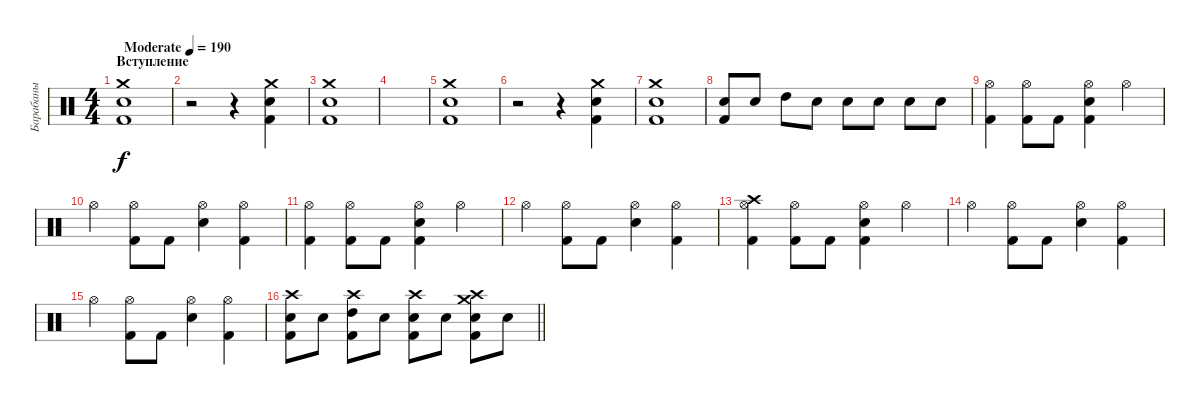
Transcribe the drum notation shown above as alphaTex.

\track ("Барабаны" "Барабаны") {instrument percussion}
\staff {score}
\articulation defaults
\ts (4 4)
\section ("" "Вступление")
\tempo (190 "Moderate")
\clef neutral
\ks c
("Kick (hit) 2" "Snare (hit) 2" "Crash medium (hit)").1{dy f} |
r.2 r.4 ("Kick (hit) 2" "Snare (hit) 2" "Crash medium (hit)").4 |
("Kick (hit) 2" "Snare (hit) 2" "Crash medium (hit)").1 |
|
("Kick (hit) 2" "Snare (hit) 2" "Crash medium (hit)").1 |
r.2 r.4 ("Kick (hit) 2" "Snare (hit) 2" "Crash medium (hit)").4 |
("Kick (hit) 2" "Snare (hit) 2" "Crash medium (hit)").1 |
("Kick (hit) 2" "Electric Snare (hit)").8 "Electric Snare (hit)".8 "High Tom (hit)".8 "Electric Snare (hit)".8 "Electric Snare (hit)".8 "Electric Snare (hit)".8 "Electric Snare (hit)".8 "Electric Snare (hit)".8 |
("Hi-Hat (open)" "Kick (hit) 2").4 ("Kick (hit) 2" "Hi-Hat (open)").8 "Kick (hit) 2".8 ("Kick (hit) 2" "Hi-Hat (open)" "Electric Snare (hit)").4 "Hi-Hat (open)".4 |
"Hi-Hat (open)".4 ("Kick (hit) 2" "Hi-Hat (open)").8 "Kick (hit) 2".8 ("Hi-Hat (open)" "Electric Snare (hit)").4 ("Kick (hit) 2" "Hi-Hat (open)").4 |
("Hi-Hat (open)" "Kick (hit) 2").4 ("Kick (hit) 2" "Hi-Hat (open)").8 "Kick (hit) 2".8 ("Kick (hit) 2" "Hi-Hat (open)" "Electric Snare (hit)").4 "Hi-Hat (open)".4 |
"Hi-Hat (open)".4 ("Kick (hit) 2" "Hi-Hat (open)").8 "Kick (hit) 2".8 ("Hi-Hat (open)" "Electric Snare (hit)").4 ("Kick (hit) 2" "Hi-Hat (open)").4 |
("Crash high (hit)" "Kick (hit) 2" "Hi-Hat (open)").4 ("Kick (hit) 2" "Hi-Hat (open)").8 "Kick (hit) 2".8 ("Kick (hit) 2" "Hi-Hat (open)" "Electric Snare (hit)").4 "Hi-Hat (open)".4 |
"Hi-Hat (open)".4 ("Kick (hit) 2" "Hi-Hat (open)").8 "Kick (hit) 2".8 ("Hi-Hat (open)" "Electric Snare (hit)").4 ("Kick (hit) 2" "Hi-Hat (open)").4 |
"Hi-Hat (open)".4 ("Kick (hit) 2" "Hi-Hat (open)").8 "Kick (hit) 2".8 ("Hi-Hat (open)" "Electric Snare (hit)").4 ("Kick (hit) 2" "Hi-Hat (open)").4 |
\barLineRight lightlight
("Electric Snare (hit)" "Kick (hit) 2" "Crash high (hit)").8 "Electric Snare (hit)".8 ("Kick (hit) 2" "High Tom (hit)" "Crash high (hit)").8 "Electric Snare (hit)".8 ("Kick (hit) 2" "Electric Snare (hit)" "Crash high (hit)").8 "Electric Snare (hit)".8 ("Kick (hit) 2" "Electric Snare (hit)" "Crash high (hit)" "Crash medium (hit)").8 "Electric Snare (hit)".8
